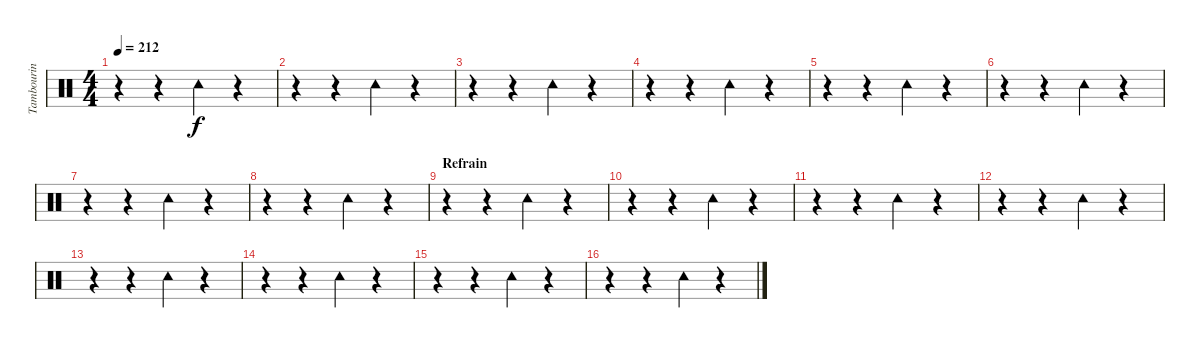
\track ("Tambourin" "Tambourin") {instrument percussion}
\staff {score}
\articulation defaults
\ts (4 4)
\tempo 212
\clef neutral
\ks c
r.4{dy f} r.4 "Tambourine (hit)".4 r.4 |
r.4 r.4 "Tambourine (hit)".4 r.4 |
r.4 r.4 "Tambourine (hit)".4 r.4 |
r.4 r.4 "Tambourine (hit)".4 r.4 |
r.4 r.4 "Tambourine (hit)".4 r.4 |
r.4 r.4 "Tambourine (hit)".4 r.4 |
r.4 r.4 "Tambourine (hit)".4 r.4 |
r.4 r.4 "Tambourine (hit)".4 r.4 |
\section ("" "Refrain")
r.4 r.4 "Tambourine (hit)".4 r.4 |
r.4 r.4 "Tambourine (hit)".4 r.4 |
r.4 r.4 "Tambourine (hit)".4 r.4 |
r.4 r.4 "Tambourine (hit)".4 r.4 |
r.4 r.4 "Tambourine (hit)".4 r.4 |
r.4 r.4 "Tambourine (hit)".4 r.4 |
r.4 r.4 "Tambourine (hit)".4 r.4 |
r.4 r.4 "Tambourine (hit)".4 r.4
